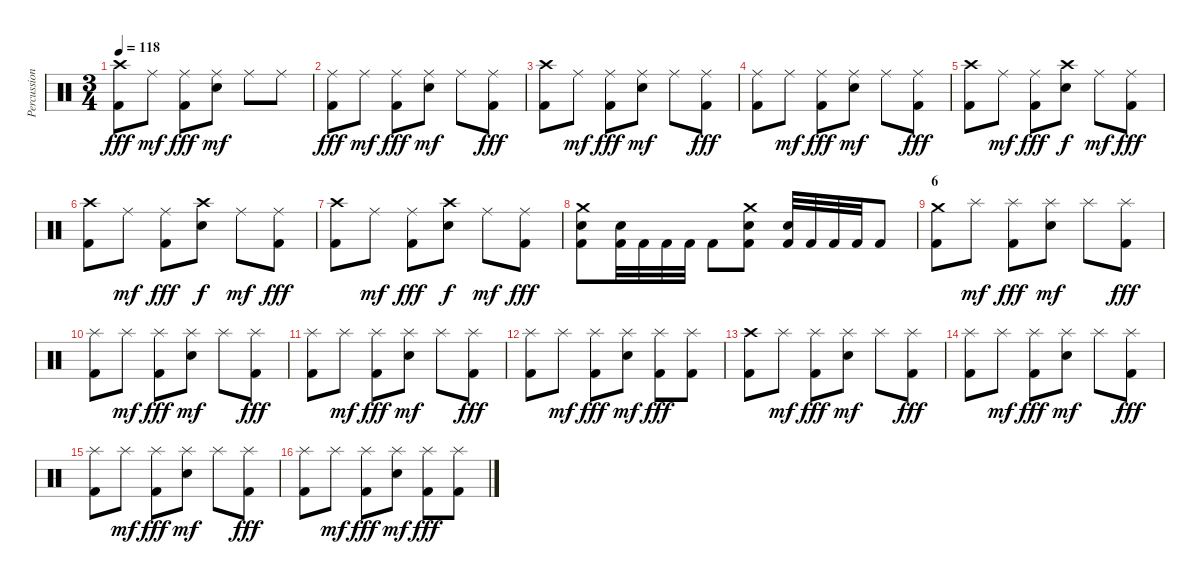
\track ("Percussion" "Percussion") {instrument percussion}
\staff {score}
\articulation defaults
\ts (3 4)
\section ("" "")
\tempo 118
\clef neutral
\ks c
("Crash high (hit)" "Kick (hit) 2").8{dy fff} "Ride (middle)".8{dy mf} ("Ride (middle)" "Kick (hit) 2").8{dy fff} ("Ride (middle)" "Electric Snare (hit)").8{dy mf} "Ride (middle)".8 "Ride (middle)".8 |
("Ride (middle)" "Kick (hit) 2").8{dy fff} "Ride (middle)".8{dy mf} ("Ride (middle)" "Kick (hit) 2").8{dy fff} ("Ride (middle)" "Electric Snare (hit)").8{dy mf} "Ride (middle)".8 ("Ride (middle)" "Kick (hit) 2").8{dy fff} |
("Crash high (hit)" "Kick (hit) 2").8 "Ride (middle)".8{dy mf} ("Ride (middle)" "Kick (hit) 2").8{dy fff} ("Ride (middle)" "Electric Snare (hit)").8{dy mf} "Ride (middle)".8 ("Ride (middle)" "Kick (hit) 2").8{dy fff} |
("Ride (middle)" "Kick (hit) 2").8 "Ride (middle)".8{dy mf} ("Ride (middle)" "Kick (hit) 2").8{dy fff} ("Ride (middle)" "Electric Snare (hit)").8{dy mf} "Ride (middle)".8 ("Ride (middle)" "Kick (hit) 2").8{dy fff} |
("Crash high (hit)" "Kick (hit) 2").8 "Ride (middle)".8{dy mf} ("Ride (middle)" "Kick (hit) 2").8{dy fff} ("Crash high (hit)" "Electric Snare (hit)").8{dy f} "Ride (middle)".8{dy mf} ("Ride (middle)" "Kick (hit) 2").8{dy fff} |
("Crash high (hit)" "Kick (hit) 2").8 "Ride (middle)".8{dy mf} ("Ride (middle)" "Kick (hit) 2").8{dy fff} ("Crash high (hit)" "Electric Snare (hit)").8{dy f} "Ride (middle)".8{dy mf} ("Ride (middle)" "Kick (hit) 2").8{dy fff} |
("Crash high (hit)" "Kick (hit) 2").8 "Ride (middle)".8{dy mf} ("Ride (middle)" "Kick (hit) 2").8{dy fff} ("Crash high (hit)" "Electric Snare (hit)").8{dy f} "Ride (middle)".8{dy mf} ("Ride (middle)" "Kick (hit) 2").8{dy fff} |
("Crash medium (hit)" "Electric Snare (hit)" "Kick (hit) 2").8 ("Electric Snare (hit)" "Kick (hit) 2").32 "Kick (hit) 2".32 "Kick (hit) 2".32 "Kick (hit) 2".32 "Kick (hit) 2".8 ("Crash medium (hit)" "Electric Snare (hit)" "Kick (hit) 2").8 ("Electric Snare (hit)" "Kick (hit) 2").32 "Kick (hit) 2".32 "Kick (hit) 2".32 "Kick (hit) 2".32 "Kick (hit) 2".8 |
\section ("" "6")
("Crash medium (hit)" "Kick (hit) 2").8 "Splash (hit)".8{dy mf} ("Splash (hit)" "Kick (hit) 2").8{dy fff} ("Splash (hit)" "Electric Snare (hit)").8{dy mf} "Splash (hit)".8 ("Splash (hit)" "Kick (hit) 2").8{dy fff} |
("Splash (hit)" "Kick (hit) 2").8 "Splash (hit)".8{dy mf} ("Splash (hit)" "Kick (hit) 2").8{dy fff} ("Splash (hit)" "Electric Snare (hit)").8{dy mf} "Splash (hit)".8 ("Splash (hit)" "Kick (hit) 2").8{dy fff} |
("Splash (hit)" "Kick (hit) 2").8 "Splash (hit)".8{dy mf} ("Splash (hit)" "Kick (hit) 2").8{dy fff} ("Splash (hit)" "Electric Snare (hit)").8{dy mf} "Splash (hit)".8 ("Splash (hit)" "Kick (hit) 2").8{dy fff} |
("Splash (hit)" "Kick (hit) 2").8 "Splash (hit)".8{dy mf} ("Splash (hit)" "Kick (hit) 2").8{dy fff} ("Splash (hit)" "Electric Snare (hit)").8{dy mf} ("Splash (hit)" "Kick (hit) 2").8{dy fff} ("Splash (hit)" "Kick (hit) 2").8 |
("Crash high (hit)" "Kick (hit) 2").8 "Splash (hit)".8{dy mf} ("Splash (hit)" "Kick (hit) 2").8{dy fff} ("Splash (hit)" "Electric Snare (hit)").8{dy mf} "Splash (hit)".8 ("Splash (hit)" "Kick (hit) 2").8{dy fff} |
("Splash (hit)" "Kick (hit) 2").8 "Splash (hit)".8{dy mf} ("Splash (hit)" "Kick (hit) 2").8{dy fff} ("Splash (hit)" "Electric Snare (hit)").8{dy mf} "Splash (hit)".8 ("Splash (hit)" "Kick (hit) 2").8{dy fff} |
("Splash (hit)" "Kick (hit) 2").8 "Splash (hit)".8{dy mf} ("Splash (hit)" "Kick (hit) 2").8{dy fff} ("Splash (hit)" "Electric Snare (hit)").8{dy mf} "Splash (hit)".8 ("Splash (hit)" "Kick (hit) 2").8{dy fff} |
("Splash (hit)" "Kick (hit) 2").8 "Splash (hit)".8{dy mf} ("Splash (hit)" "Kick (hit) 2").8{dy fff} ("Splash (hit)" "Electric Snare (hit)").8{dy mf} ("Splash (hit)" "Kick (hit) 2").8{dy fff} ("Splash (hit)" "Kick (hit) 2").8
